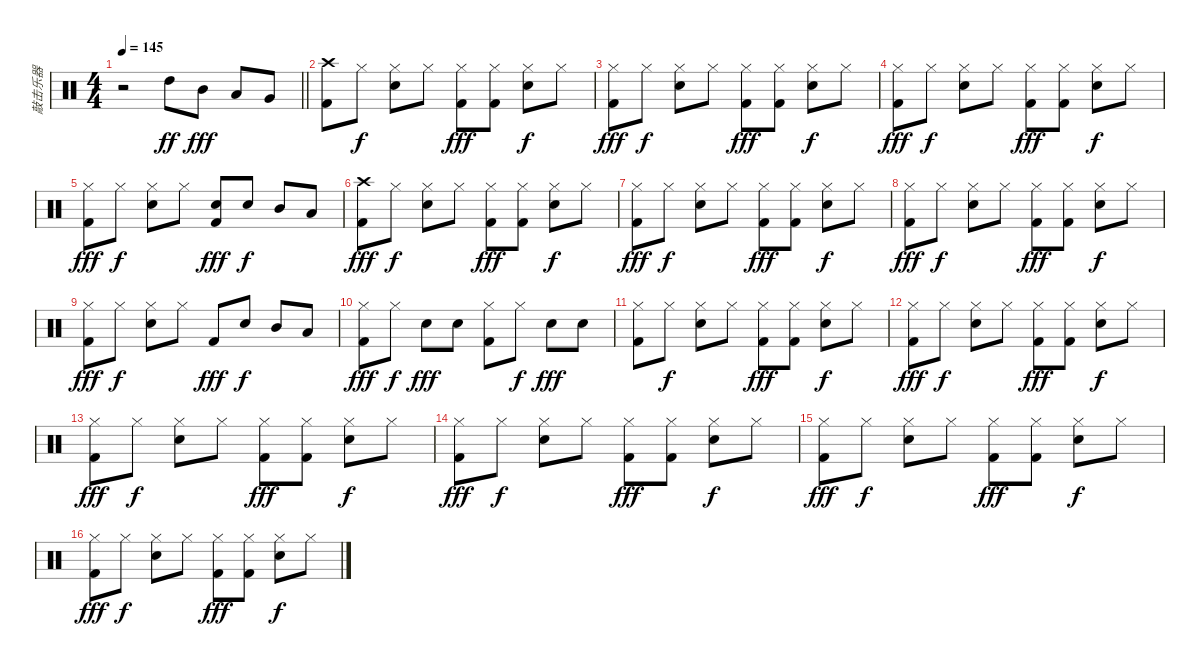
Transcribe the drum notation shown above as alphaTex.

\track ("敲击乐器" "敲击乐器") {instrument percussion}
\staff {score}
\articulation defaults
\ts (4 4)
\tempo 145
\clef neutral
\barLineRight lightlight
\ks c
r.2{dy fff} "High Tom (hit)".8{dy ff} "Mid Tom (hit)".8{dy fff} "Low Tom (hit)".8 "Very Low Tom (hit)".8 |
("Crash high (hit)" "Kick (hit) 2").8 "Hi-Hat (closed)".8{dy f} ("Hi-Hat (closed)" "Electric Snare (hit)").8 "Hi-Hat (closed)".8 ("Hi-Hat (closed)" "Kick (hit) 2").8{dy fff} ("Hi-Hat (closed)" "Kick (hit) 2").8 ("Hi-Hat (closed)" "Electric Snare (hit)").8{dy f} "Hi-Hat (closed)".8 |
("Hi-Hat (closed)" "Kick (hit) 2").8{dy fff} "Hi-Hat (closed)".8{dy f} ("Hi-Hat (closed)" "Electric Snare (hit)").8 "Hi-Hat (closed)".8 ("Hi-Hat (closed)" "Kick (hit) 2").8{dy fff} ("Hi-Hat (closed)" "Kick (hit) 2").8 ("Hi-Hat (closed)" "Electric Snare (hit)").8{dy f} "Hi-Hat (closed)".8 |
("Hi-Hat (closed)" "Kick (hit) 2").8{dy fff} "Hi-Hat (closed)".8{dy f} ("Hi-Hat (closed)" "Electric Snare (hit)").8 "Hi-Hat (closed)".8 ("Hi-Hat (closed)" "Kick (hit) 2").8{dy fff} ("Hi-Hat (closed)" "Kick (hit) 2").8 ("Hi-Hat (closed)" "Electric Snare (hit)").8{dy f} "Hi-Hat (closed)".8 |
("Hi-Hat (closed)" "Kick (hit) 2").8{dy fff} "Hi-Hat (closed)".8{dy f} ("Hi-Hat (closed)" "Electric Snare (hit)").8 "Hi-Hat (closed)".8 ("Electric Snare (hit)" "Kick (hit) 2").8{dy fff} "Electric Snare (hit)".8{dy f} "Mid Tom (hit)".8 "Low Tom (hit)".8 |
("Crash high (hit)" "Kick (hit) 2").8{dy fff} "Hi-Hat (closed)".8{dy f} ("Hi-Hat (closed)" "Electric Snare (hit)").8 "Hi-Hat (closed)".8 ("Hi-Hat (closed)" "Kick (hit) 2").8{dy fff} ("Hi-Hat (closed)" "Kick (hit) 2").8 ("Hi-Hat (closed)" "Electric Snare (hit)").8{dy f} "Hi-Hat (closed)".8 |
("Hi-Hat (closed)" "Kick (hit) 2").8{dy fff} "Hi-Hat (closed)".8{dy f} ("Hi-Hat (closed)" "Electric Snare (hit)").8 "Hi-Hat (closed)".8 ("Hi-Hat (closed)" "Kick (hit) 2").8{dy fff} ("Hi-Hat (closed)" "Kick (hit) 2").8 ("Hi-Hat (closed)" "Electric Snare (hit)").8{dy f} "Hi-Hat (closed)".8 |
("Hi-Hat (closed)" "Kick (hit) 2").8{dy fff} "Hi-Hat (closed)".8{dy f} ("Hi-Hat (closed)" "Electric Snare (hit)").8 "Hi-Hat (closed)".8 ("Hi-Hat (closed)" "Kick (hit) 2").8{dy fff} ("Hi-Hat (closed)" "Kick (hit) 2").8 ("Hi-Hat (closed)" "Electric Snare (hit)").8{dy f} "Hi-Hat (closed)".8 |
("Hi-Hat (closed)" "Kick (hit) 2").8{dy fff} "Hi-Hat (closed)".8{dy f} ("Hi-Hat (closed)" "Electric Snare (hit)").8 "Hi-Hat (closed)".8 "Kick (hit) 2".8{dy fff} "Electric Snare (hit)".8{dy f} "Mid Tom (hit)".8 "Low Tom (hit)".8 |
("Hi-Hat (closed)" "Kick (hit) 2").8{dy fff} "Hi-Hat (closed)".8{dy f} "Electric Snare (hit)".8{dy fff} "Electric Snare (hit)".8 ("Hi-Hat (closed)" "Kick (hit) 2").8 "Hi-Hat (closed)".8{dy f} "Electric Snare (hit)".8{dy fff} "Electric Snare (hit)".8 |
("Hi-Hat (closed)" "Kick (hit) 2").8 "Hi-Hat (closed)".8{dy f} ("Hi-Hat (closed)" "Electric Snare (hit)").8 "Hi-Hat (closed)".8 ("Hi-Hat (closed)" "Kick (hit) 2").8{dy fff} ("Hi-Hat (closed)" "Kick (hit) 2").8 ("Hi-Hat (closed)" "Electric Snare (hit)").8{dy f} "Hi-Hat (closed)".8 |
("Hi-Hat (closed)" "Kick (hit) 2").8{dy fff} "Hi-Hat (closed)".8{dy f} ("Hi-Hat (closed)" "Electric Snare (hit)").8 "Hi-Hat (closed)".8 ("Hi-Hat (closed)" "Kick (hit) 2").8{dy fff} ("Hi-Hat (closed)" "Kick (hit) 2").8 ("Hi-Hat (closed)" "Electric Snare (hit)").8{dy f} "Hi-Hat (closed)".8 |
("Hi-Hat (closed)" "Kick (hit) 2").8{dy fff} "Hi-Hat (closed)".8{dy f} ("Hi-Hat (closed)" "Electric Snare (hit)").8 "Hi-Hat (closed)".8 ("Hi-Hat (closed)" "Kick (hit) 2").8{dy fff} ("Hi-Hat (closed)" "Kick (hit) 2").8 ("Hi-Hat (closed)" "Electric Snare (hit)").8{dy f} "Hi-Hat (closed)".8 |
("Hi-Hat (closed)" "Kick (hit) 2").8{dy fff} "Hi-Hat (closed)".8{dy f} ("Hi-Hat (closed)" "Electric Snare (hit)").8 "Hi-Hat (closed)".8 ("Hi-Hat (closed)" "Kick (hit) 2").8{dy fff} ("Hi-Hat (closed)" "Kick (hit) 2").8 ("Hi-Hat (closed)" "Electric Snare (hit)").8{dy f} "Hi-Hat (closed)".8 |
("Hi-Hat (closed)" "Kick (hit) 2").8{dy fff} "Hi-Hat (closed)".8{dy f} ("Hi-Hat (closed)" "Electric Snare (hit)").8 "Hi-Hat (closed)".8 ("Hi-Hat (closed)" "Kick (hit) 2").8{dy fff} ("Hi-Hat (closed)" "Kick (hit) 2").8 ("Hi-Hat (closed)" "Electric Snare (hit)").8{dy f} "Hi-Hat (closed)".8 |
("Hi-Hat (closed)" "Kick (hit) 2").8{dy fff} "Hi-Hat (closed)".8{dy f} ("Hi-Hat (closed)" "Electric Snare (hit)").8 "Hi-Hat (closed)".8 ("Hi-Hat (closed)" "Kick (hit) 2").8{dy fff} ("Hi-Hat (closed)" "Kick (hit) 2").8 ("Hi-Hat (closed)" "Electric Snare (hit)").8{dy f} "Hi-Hat (closed)".8
